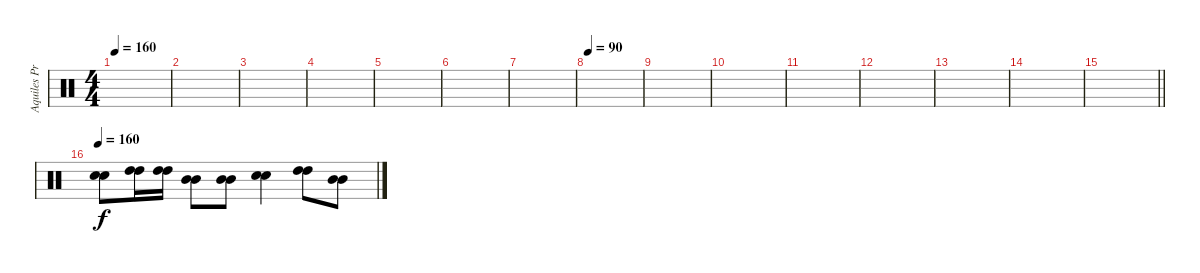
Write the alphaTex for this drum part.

\track ("Aquiles Priester" "Aquiles Pr") {instrument percussion}
\staff {score}
\articulation defaults
\ts (4 4)
\tempo 160
\clef neutral
\ks c
|
|
|
|
|
|
|
\tempo 90
|
|
|
|
|
|
|
\barLineRight lightlight
|
\tempo 160
("Electric Snare (hit)" "Electric Snare (hit)").8 ("High Tom (hit)" "High Tom (hit)").16 ("High Tom (hit)" "High Tom (hit)").16 ("Mid Tom (hit)" "Mid Tom (hit)").8 ("Mid Tom (hit)" "Mid Tom (hit)").8 ("Electric Snare (hit)" "Electric Snare (hit)").4 ("High Tom (hit)" "High Tom (hit)").8 ("Mid Tom (hit)" "Mid Tom (hit)").8
